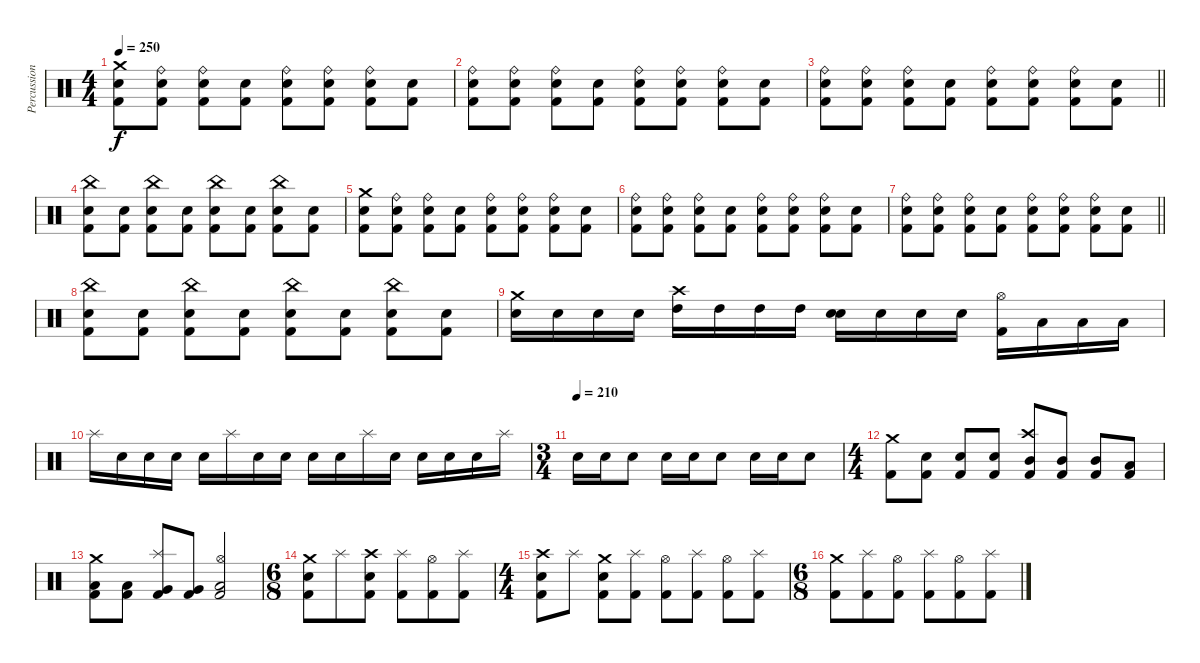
\track ("Percussions" "Percussion") {instrument percussion}
\staff {score}
\articulation defaults
\ts (4 4)
\tempo 250
\clef neutral
\ks c
("Crash medium (hit)" "Electric Snare (hit)" "Kick (hit) 2").8{dy f} ("Ride (bell)" "Electric Snare (hit)" "Kick (hit) 2").8 ("Ride (bell)" "Electric Snare (hit)" "Kick (hit) 2").8 ("Electric Snare (hit)" "Kick (hit) 2").8 ("Ride (bell)" "Electric Snare (hit)" "Kick (hit) 2").8 ("Ride (bell)" "Electric Snare (hit)" "Kick (hit) 2").8 ("Ride (bell)" "Electric Snare (hit)" "Kick (hit) 2").8 ("Electric Snare (hit)" "Kick (hit) 2").8 |
("Ride (bell)" "Electric Snare (hit)" "Kick (hit) 2").8 ("Ride (bell)" "Electric Snare (hit)" "Kick (hit) 2").8 ("Ride (bell)" "Electric Snare (hit)" "Kick (hit) 2").8 ("Electric Snare (hit)" "Kick (hit) 2").8 ("Ride (bell)" "Electric Snare (hit)" "Kick (hit) 2").8 ("Ride (bell)" "Electric Snare (hit)" "Kick (hit) 2").8 ("Ride (bell)" "Electric Snare (hit)" "Kick (hit) 2").8 ("Electric Snare (hit)" "Kick (hit) 2").8 |
\barLineRight lightlight
("Ride (bell)" "Electric Snare (hit)" "Kick (hit) 2").8 ("Ride (bell)" "Electric Snare (hit)" "Kick (hit) 2").8 ("Ride (bell)" "Electric Snare (hit)" "Kick (hit) 2").8 ("Electric Snare (hit)" "Kick (hit) 2").8 ("Ride (bell)" "Electric Snare (hit)" "Kick (hit) 2").8 ("Ride (bell)" "Electric Snare (hit)" "Kick (hit) 2").8 ("Ride (bell)" "Electric Snare (hit)" "Kick (hit) 2").8 ("Electric Snare (hit)" "Kick (hit) 2").8 |
("China (hit)" "Electric Snare (hit)" "Kick (hit) 2").8 ("Electric Snare (hit)" "Kick (hit) 2").8 ("China (hit)" "Electric Snare (hit)" "Kick (hit) 2").8 ("Electric Snare (hit)" "Kick (hit) 2").8 ("China (hit)" "Electric Snare (hit)" "Kick (hit) 2").8 ("Electric Snare (hit)" "Kick (hit) 2").8 ("China (hit)" "Electric Snare (hit)" "Kick (hit) 2").8 ("Electric Snare (hit)" "Kick (hit) 2").8 |
("Crash medium (hit)" "Electric Snare (hit)" "Kick (hit) 2").8 ("Ride (bell)" "Electric Snare (hit)" "Kick (hit) 2").8 ("Ride (bell)" "Electric Snare (hit)" "Kick (hit) 2").8 ("Electric Snare (hit)" "Kick (hit) 2").8 ("Ride (bell)" "Electric Snare (hit)" "Kick (hit) 2").8 ("Ride (bell)" "Electric Snare (hit)" "Kick (hit) 2").8 ("Ride (bell)" "Electric Snare (hit)" "Kick (hit) 2").8 ("Electric Snare (hit)" "Kick (hit) 2").8 |
("Ride (bell)" "Electric Snare (hit)" "Kick (hit) 2").8 ("Ride (bell)" "Electric Snare (hit)" "Kick (hit) 2").8 ("Ride (bell)" "Electric Snare (hit)" "Kick (hit) 2").8 ("Electric Snare (hit)" "Kick (hit) 2").8 ("Ride (bell)" "Electric Snare (hit)" "Kick (hit) 2").8 ("Ride (bell)" "Electric Snare (hit)" "Kick (hit) 2").8 ("Ride (bell)" "Electric Snare (hit)" "Kick (hit) 2").8 ("Electric Snare (hit)" "Kick (hit) 2").8 |
\barLineRight lightlight
("Ride (bell)" "Electric Snare (hit)" "Kick (hit) 2").8 ("Ride (bell)" "Electric Snare (hit)" "Kick (hit) 2").8 ("Ride (bell)" "Electric Snare (hit)" "Kick (hit) 2").8 ("Electric Snare (hit)" "Kick (hit) 2").8 ("Ride (bell)" "Electric Snare (hit)" "Kick (hit) 2").8 ("Ride (bell)" "Electric Snare (hit)" "Kick (hit) 2").8 ("Ride (bell)" "Electric Snare (hit)" "Kick (hit) 2").8 ("Electric Snare (hit)" "Kick (hit) 2").8 |
("China (hit)" "Electric Snare (hit)" "Kick (hit) 2").8 ("Electric Snare (hit)" "Kick (hit) 2").8 ("China (hit)" "Electric Snare (hit)" "Kick (hit) 2").8 ("Electric Snare (hit)" "Kick (hit) 2").8 ("China (hit)" "Electric Snare (hit)" "Kick (hit) 2").8 ("Electric Snare (hit)" "Kick (hit) 2").8 ("China (hit)" "Electric Snare (hit)" "Kick (hit) 2").8 ("Electric Snare (hit)" "Kick (hit) 2").8 |
("Crash medium (hit)" "Electric Snare (hit)").16 "Electric Snare (hit)".16 "Electric Snare (hit)".16 "Electric Snare (hit)".16 ("Crash high (hit)" "High Tom (hit)").16 "High Tom (hit)".16 "High Tom (hit)".16 "High Tom (hit)".16 ("Snare (hit)" "Electric Snare (hit)").16 "Electric Snare (hit)".16 "Electric Snare (hit)".16 "Electric Snare (hit)".16 ("Hi-Hat (open)" "Kick (hit) 2").16 "Low Tom (hit)".16 "Low Tom (hit)".16 "Low Tom (hit)".16 |
"Splash (hit)".16 "Electric Snare (hit)".16 "Electric Snare (hit)".16 "Electric Snare (hit)".16 "Electric Snare (hit)".16 "Splash (hit)".16 "Electric Snare (hit)".16 "Electric Snare (hit)".16 "Electric Snare (hit)".16 "Electric Snare (hit)".16 "Splash (hit)".16 "Electric Snare (hit)".16 "Electric Snare (hit)".16 "Electric Snare (hit)".16 "Electric Snare (hit)".16 "Splash (hit)".16 |
\ts (3 4)
\tempo (210)
"Electric Snare (hit)".16 "Electric Snare (hit)".16 "Electric Snare (hit)".8 "Electric Snare (hit)".16 "Electric Snare (hit)".16 "Electric Snare (hit)".8 "Electric Snare (hit)".16 "Electric Snare (hit)".16 "Electric Snare (hit)".8 |
\ts (4 4)
("Crash medium (hit)" "Kick (hit) 2").8 ("Electric Snare (hit)" "Kick (hit) 2").8 ("Electric Snare (hit)" "Kick (hit) 2").8 ("Electric Snare (hit)" "Kick (hit) 2").8 ("Crash high (hit)" "Mid Tom (hit)" "Kick (hit) 2").8 ("Mid Tom (hit)" "Kick (hit) 2").8 ("Mid Tom (hit)" "Kick (hit) 2").8 ("Low Tom (hit)" "Kick (hit) 2").8 |
("Crash medium (hit)" "Low Tom (hit)" "Kick (hit) 2").8 ("Low Tom (hit)" "Kick (hit) 2").8 ("Splash (hit)" "Very Low Tom (hit)" "Kick (hit) 2").8 ("Very Low Tom (hit)" "Kick (hit) 2").8 ("Hi-Hat (open)" "Low Floor Tom (hit)" "Kick (hit) 2").2 |
\ts (6 8)
("Crash medium (hit)" "Electric Snare (hit)" "Kick (hit) 2").8 "Splash (hit)".8 ("Crash high (hit)" "Electric Snare (hit)" "Kick (hit) 2").8 ("Splash (hit)" "Kick (hit) 2").8 ("Hi-Hat (open)" "Kick (hit) 2").8 ("Splash (hit)" "Kick (hit) 2").8 |
\ts (4 4)
("Crash high (hit)" "Electric Snare (hit)" "Kick (hit) 2").8 "Splash (hit)".8 ("Crash medium (hit)" "Electric Snare (hit)" "Kick (hit) 2").8 ("Splash (hit)" "Kick (hit) 2").8 ("Hi-Hat (open)" "Kick (hit) 2").8 ("Splash (hit)" "Kick (hit) 2").8 ("Hi-Hat (open)" "Kick (hit) 2").8 ("Splash (hit)" "Kick (hit) 2").8 |
\ts (6 8)
("Crash medium (hit)" "Kick (hit) 2").8 ("Splash (hit)" "Kick (hit) 2").8 ("Hi-Hat (open)" "Kick (hit) 2").8 ("Splash (hit)" "Kick (hit) 2").8 ("Hi-Hat (open)" "Kick (hit) 2").8 ("Splash (hit)" "Kick (hit) 2").8
